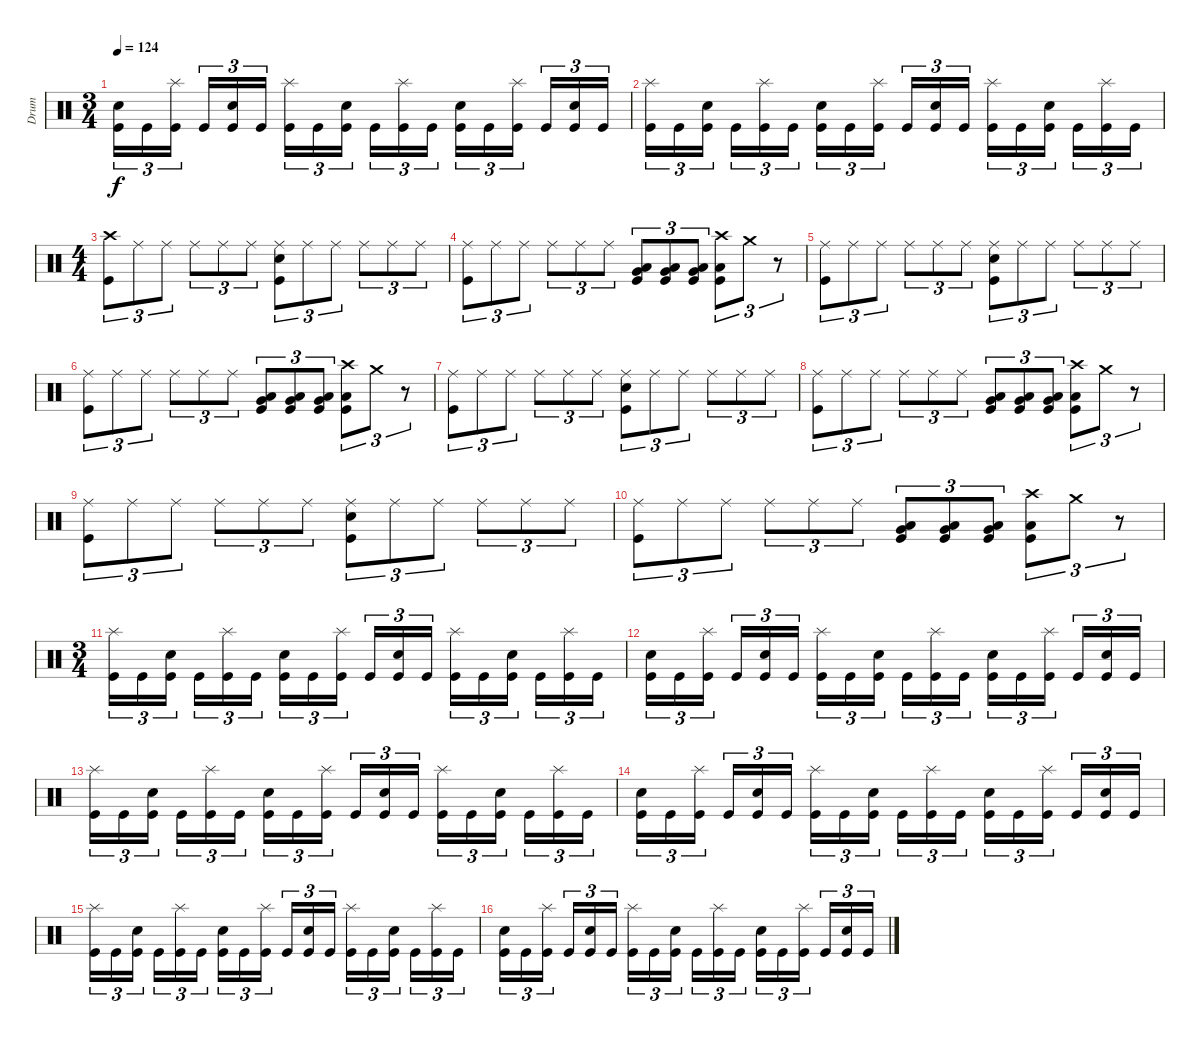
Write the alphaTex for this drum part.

\track ("Drum" "Drum") {instrument percussion}
\staff
\articulation defaults
\ts (3 4)
\tempo 124
\clef neutral
\ks c
("Electric Snare (hit)" "Kick (hit)").16{tu (3 2) dy f} "Kick (hit)".16{tu (3 2)} ("Splash (hit)" "Kick (hit)").16{tu (3 2) beam splitsecondary} "Kick (hit)".16{tu (3 2)} ("Electric Snare (hit)" "Kick (hit)").16{tu (3 2)} "Kick (hit)".16{tu (3 2)} ("Splash (hit)" "Kick (hit)").16{tu (3 2)} "Kick (hit)".16{tu (3 2)} ("Electric Snare (hit)" "Kick (hit)").16{tu (3 2) beam splitsecondary} "Kick (hit)".16{tu (3 2)} ("Splash (hit)" "Kick (hit)").16{tu (3 2)} "Kick (hit)".16{tu (3 2)} ("Electric Snare (hit)" "Kick (hit)").16{tu (3 2)} "Kick (hit)".16{tu (3 2)} ("Splash (hit)" "Kick (hit)").16{tu (3 2) beam splitsecondary} "Kick (hit)".16{tu (3 2)} ("Electric Snare (hit)" "Kick (hit)").16{tu (3 2)} "Kick (hit)".16{tu (3 2)} |
("Splash (hit)" "Kick (hit)").16{tu (3 2)} "Kick (hit)".16{tu (3 2)} ("Electric Snare (hit)" "Kick (hit)").16{tu (3 2) beam splitsecondary} "Kick (hit)".16{tu (3 2)} ("Splash (hit)" "Kick (hit)").16{tu (3 2)} "Kick (hit)".16{tu (3 2)} ("Electric Snare (hit)" "Kick (hit)").16{tu (3 2)} "Kick (hit)".16{tu (3 2)} ("Splash (hit)" "Kick (hit)").16{tu (3 2) beam splitsecondary} "Kick (hit)".16{tu (3 2)} ("Electric Snare (hit)" "Kick (hit)").16{tu (3 2)} "Kick (hit)".16{tu (3 2)} ("Splash (hit)" "Kick (hit)").16{tu (3 2)} "Kick (hit)".16{tu (3 2)} ("Electric Snare (hit)" "Kick (hit)").16{tu (3 2) beam splitsecondary} "Kick (hit)".16{tu (3 2)} ("Splash (hit)" "Kick (hit)").16{tu (3 2)} "Kick (hit)".16{tu (3 2)} |
\ts (4 4)
("Crash high (hit)" "Kick (hit)").8{tu (3 2)} "Ride (middle)".8{tu (3 2)} "Ride (middle)".8{tu (3 2)} "Ride (middle)".8{tu (3 2)} "Ride (middle)".8{tu (3 2)} "Ride (middle)".8{tu (3 2)} ("Ride (middle)" "Electric Snare (hit)" "Kick (hit)").8{tu (3 2)} "Ride (middle)".8{tu (3 2)} "Ride (middle)".8{tu (3 2)} "Ride (middle)".8{tu (3 2)} "Ride (middle)".8{tu (3 2)} "Ride (middle)".8{tu (3 2)} |
("Ride (middle)" "Kick (hit)").8{tu (3 2)} "Ride (middle)".8{tu (3 2)} "Ride (middle)".8{tu (3 2)} "Ride (middle)".8{tu (3 2)} "Ride (middle)".8{tu (3 2)} "Ride (middle)".8{tu (3 2)} ("Very Low Tom (hit)" "Low Floor Tom (hit)" "Kick (hit)").8{tu (3 2)} ("Very Low Tom (hit)" "Low Floor Tom (hit)" "Kick (hit)").8{tu (3 2)} ("Very Low Tom (hit)" "Low Floor Tom (hit)" "Kick (hit)").8{tu (3 2)} ("Crash high (hit)" "Low Floor Tom (hit)" "Kick (hit)").8{tu (3 2)} "Crash medium (hit)".8{tu (3 2)} r.8{tu (3 2)} |
("Ride (middle)" "Kick (hit)").8{tu (3 2)} "Ride (middle)".8{tu (3 2)} "Ride (middle)".8{tu (3 2)} "Ride (middle)".8{tu (3 2)} "Ride (middle)".8{tu (3 2)} "Ride (middle)".8{tu (3 2)} ("Ride (middle)" "Electric Snare (hit)" "Kick (hit)").8{tu (3 2)} "Ride (middle)".8{tu (3 2)} "Ride (middle)".8{tu (3 2)} "Ride (middle)".8{tu (3 2)} "Ride (middle)".8{tu (3 2)} "Ride (middle)".8{tu (3 2)} |
("Ride (middle)" "Kick (hit)").8{tu (3 2)} "Ride (middle)".8{tu (3 2)} "Ride (middle)".8{tu (3 2)} "Ride (middle)".8{tu (3 2)} "Ride (middle)".8{tu (3 2)} "Ride (middle)".8{tu (3 2)} ("Very Low Tom (hit)" "Low Floor Tom (hit)" "Kick (hit)").8{tu (3 2)} ("Very Low Tom (hit)" "Low Floor Tom (hit)" "Kick (hit)").8{tu (3 2)} ("Very Low Tom (hit)" "Low Floor Tom (hit)" "Kick (hit)").8{tu (3 2)} ("Crash high (hit)" "Low Floor Tom (hit)" "Kick (hit)").8{tu (3 2)} "Crash medium (hit)".8{tu (3 2)} r.8{tu (3 2)} |
("Ride (middle)" "Kick (hit)").8{tu (3 2)} "Ride (middle)".8{tu (3 2)} "Ride (middle)".8{tu (3 2)} "Ride (middle)".8{tu (3 2)} "Ride (middle)".8{tu (3 2)} "Ride (middle)".8{tu (3 2)} ("Ride (middle)" "Electric Snare (hit)" "Kick (hit)").8{tu (3 2)} "Ride (middle)".8{tu (3 2)} "Ride (middle)".8{tu (3 2)} "Ride (middle)".8{tu (3 2)} "Ride (middle)".8{tu (3 2)} "Ride (middle)".8{tu (3 2)} |
("Ride (middle)" "Kick (hit)").8{tu (3 2)} "Ride (middle)".8{tu (3 2)} "Ride (middle)".8{tu (3 2)} "Ride (middle)".8{tu (3 2)} "Ride (middle)".8{tu (3 2)} "Ride (middle)".8{tu (3 2)} ("Very Low Tom (hit)" "Low Floor Tom (hit)" "Kick (hit)").8{tu (3 2)} ("Very Low Tom (hit)" "Low Floor Tom (hit)" "Kick (hit)").8{tu (3 2)} ("Very Low Tom (hit)" "Low Floor Tom (hit)" "Kick (hit)").8{tu (3 2)} ("Crash high (hit)" "Low Floor Tom (hit)" "Kick (hit)").8{tu (3 2)} "Crash medium (hit)".8{tu (3 2)} r.8{tu (3 2)} |
("Ride (middle)" "Kick (hit)").8{tu (3 2)} "Ride (middle)".8{tu (3 2)} "Ride (middle)".8{tu (3 2)} "Ride (middle)".8{tu (3 2)} "Ride (middle)".8{tu (3 2)} "Ride (middle)".8{tu (3 2)} ("Ride (middle)" "Electric Snare (hit)" "Kick (hit)").8{tu (3 2)} "Ride (middle)".8{tu (3 2)} "Ride (middle)".8{tu (3 2)} "Ride (middle)".8{tu (3 2)} "Ride (middle)".8{tu (3 2)} "Ride (middle)".8{tu (3 2)} |
("Ride (middle)" "Kick (hit)").8{tu (3 2)} "Ride (middle)".8{tu (3 2)} "Ride (middle)".8{tu (3 2)} "Ride (middle)".8{tu (3 2)} "Ride (middle)".8{tu (3 2)} "Ride (middle)".8{tu (3 2)} ("Very Low Tom (hit)" "Low Floor Tom (hit)" "Kick (hit)").8{tu (3 2)} ("Very Low Tom (hit)" "Low Floor Tom (hit)" "Kick (hit)").8{tu (3 2)} ("Very Low Tom (hit)" "Low Floor Tom (hit)" "Kick (hit)").8{tu (3 2)} ("Crash high (hit)" "Low Floor Tom (hit)" "Kick (hit)").8{tu (3 2)} "Crash medium (hit)".8{tu (3 2)} r.8{tu (3 2)} |
\ts (3 4)
("Splash (hit)" "Kick (hit)").16{tu (3 2)} "Kick (hit)".16{tu (3 2)} ("Electric Snare (hit)" "Kick (hit)").16{tu (3 2) beam splitsecondary} "Kick (hit)".16{tu (3 2)} ("Splash (hit)" "Kick (hit)").16{tu (3 2)} "Kick (hit)".16{tu (3 2)} ("Electric Snare (hit)" "Kick (hit)").16{tu (3 2)} "Kick (hit)".16{tu (3 2)} ("Splash (hit)" "Kick (hit)").16{tu (3 2) beam splitsecondary} "Kick (hit)".16{tu (3 2)} ("Electric Snare (hit)" "Kick (hit)").16{tu (3 2)} "Kick (hit)".16{tu (3 2)} ("Splash (hit)" "Kick (hit)").16{tu (3 2)} "Kick (hit)".16{tu (3 2)} ("Electric Snare (hit)" "Kick (hit)").16{tu (3 2) beam splitsecondary} "Kick (hit)".16{tu (3 2)} ("Splash (hit)" "Kick (hit)").16{tu (3 2)} "Kick (hit)".16{tu (3 2)} |
("Electric Snare (hit)" "Kick (hit)").16{tu (3 2)} "Kick (hit)".16{tu (3 2)} ("Splash (hit)" "Kick (hit)").16{tu (3 2) beam splitsecondary} "Kick (hit)".16{tu (3 2)} ("Electric Snare (hit)" "Kick (hit)").16{tu (3 2)} "Kick (hit)".16{tu (3 2)} ("Splash (hit)" "Kick (hit)").16{tu (3 2)} "Kick (hit)".16{tu (3 2)} ("Electric Snare (hit)" "Kick (hit)").16{tu (3 2) beam splitsecondary} "Kick (hit)".16{tu (3 2)} ("Splash (hit)" "Kick (hit)").16{tu (3 2)} "Kick (hit)".16{tu (3 2)} ("Electric Snare (hit)" "Kick (hit)").16{tu (3 2)} "Kick (hit)".16{tu (3 2)} ("Splash (hit)" "Kick (hit)").16{tu (3 2) beam splitsecondary} "Kick (hit)".16{tu (3 2)} ("Electric Snare (hit)" "Kick (hit)").16{tu (3 2)} "Kick (hit)".16{tu (3 2)} |
("Splash (hit)" "Kick (hit)").16{tu (3 2)} "Kick (hit)".16{tu (3 2)} ("Electric Snare (hit)" "Kick (hit)").16{tu (3 2) beam splitsecondary} "Kick (hit)".16{tu (3 2)} ("Splash (hit)" "Kick (hit)").16{tu (3 2)} "Kick (hit)".16{tu (3 2)} ("Electric Snare (hit)" "Kick (hit)").16{tu (3 2)} "Kick (hit)".16{tu (3 2)} ("Splash (hit)" "Kick (hit)").16{tu (3 2) beam splitsecondary} "Kick (hit)".16{tu (3 2)} ("Electric Snare (hit)" "Kick (hit)").16{tu (3 2)} "Kick (hit)".16{tu (3 2)} ("Splash (hit)" "Kick (hit)").16{tu (3 2)} "Kick (hit)".16{tu (3 2)} ("Electric Snare (hit)" "Kick (hit)").16{tu (3 2) beam splitsecondary} "Kick (hit)".16{tu (3 2)} ("Splash (hit)" "Kick (hit)").16{tu (3 2)} "Kick (hit)".16{tu (3 2)} |
("Electric Snare (hit)" "Kick (hit)").16{tu (3 2)} "Kick (hit)".16{tu (3 2)} ("Splash (hit)" "Kick (hit)").16{tu (3 2) beam splitsecondary} "Kick (hit)".16{tu (3 2)} ("Electric Snare (hit)" "Kick (hit)").16{tu (3 2)} "Kick (hit)".16{tu (3 2)} ("Splash (hit)" "Kick (hit)").16{tu (3 2)} "Kick (hit)".16{tu (3 2)} ("Electric Snare (hit)" "Kick (hit)").16{tu (3 2) beam splitsecondary} "Kick (hit)".16{tu (3 2)} ("Splash (hit)" "Kick (hit)").16{tu (3 2)} "Kick (hit)".16{tu (3 2)} ("Electric Snare (hit)" "Kick (hit)").16{tu (3 2)} "Kick (hit)".16{tu (3 2)} ("Splash (hit)" "Kick (hit)").16{tu (3 2) beam splitsecondary} "Kick (hit)".16{tu (3 2)} ("Electric Snare (hit)" "Kick (hit)").16{tu (3 2)} "Kick (hit)".16{tu (3 2)} |
("Splash (hit)" "Kick (hit)").16{tu (3 2)} "Kick (hit)".16{tu (3 2)} ("Electric Snare (hit)" "Kick (hit)").16{tu (3 2) beam splitsecondary} "Kick (hit)".16{tu (3 2)} ("Splash (hit)" "Kick (hit)").16{tu (3 2)} "Kick (hit)".16{tu (3 2)} ("Electric Snare (hit)" "Kick (hit)").16{tu (3 2)} "Kick (hit)".16{tu (3 2)} ("Splash (hit)" "Kick (hit)").16{tu (3 2) beam splitsecondary} "Kick (hit)".16{tu (3 2)} ("Electric Snare (hit)" "Kick (hit)").16{tu (3 2)} "Kick (hit)".16{tu (3 2)} ("Splash (hit)" "Kick (hit)").16{tu (3 2)} "Kick (hit)".16{tu (3 2)} ("Electric Snare (hit)" "Kick (hit)").16{tu (3 2) beam splitsecondary} "Kick (hit)".16{tu (3 2)} ("Splash (hit)" "Kick (hit)").16{tu (3 2)} "Kick (hit)".16{tu (3 2)} |
("Electric Snare (hit)" "Kick (hit)").16{tu (3 2)} "Kick (hit)".16{tu (3 2)} ("Splash (hit)" "Kick (hit)").16{tu (3 2) beam splitsecondary} "Kick (hit)".16{tu (3 2)} ("Electric Snare (hit)" "Kick (hit)").16{tu (3 2)} "Kick (hit)".16{tu (3 2)} ("Splash (hit)" "Kick (hit)").16{tu (3 2)} "Kick (hit)".16{tu (3 2)} ("Electric Snare (hit)" "Kick (hit)").16{tu (3 2) beam splitsecondary} "Kick (hit)".16{tu (3 2)} ("Splash (hit)" "Kick (hit)").16{tu (3 2)} "Kick (hit)".16{tu (3 2)} ("Electric Snare (hit)" "Kick (hit)").16{tu (3 2)} "Kick (hit)".16{tu (3 2)} ("Splash (hit)" "Kick (hit)").16{tu (3 2) beam splitsecondary} "Kick (hit)".16{tu (3 2)} ("Electric Snare (hit)" "Kick (hit)").16{tu (3 2)} "Kick (hit)".16{tu (3 2)}
